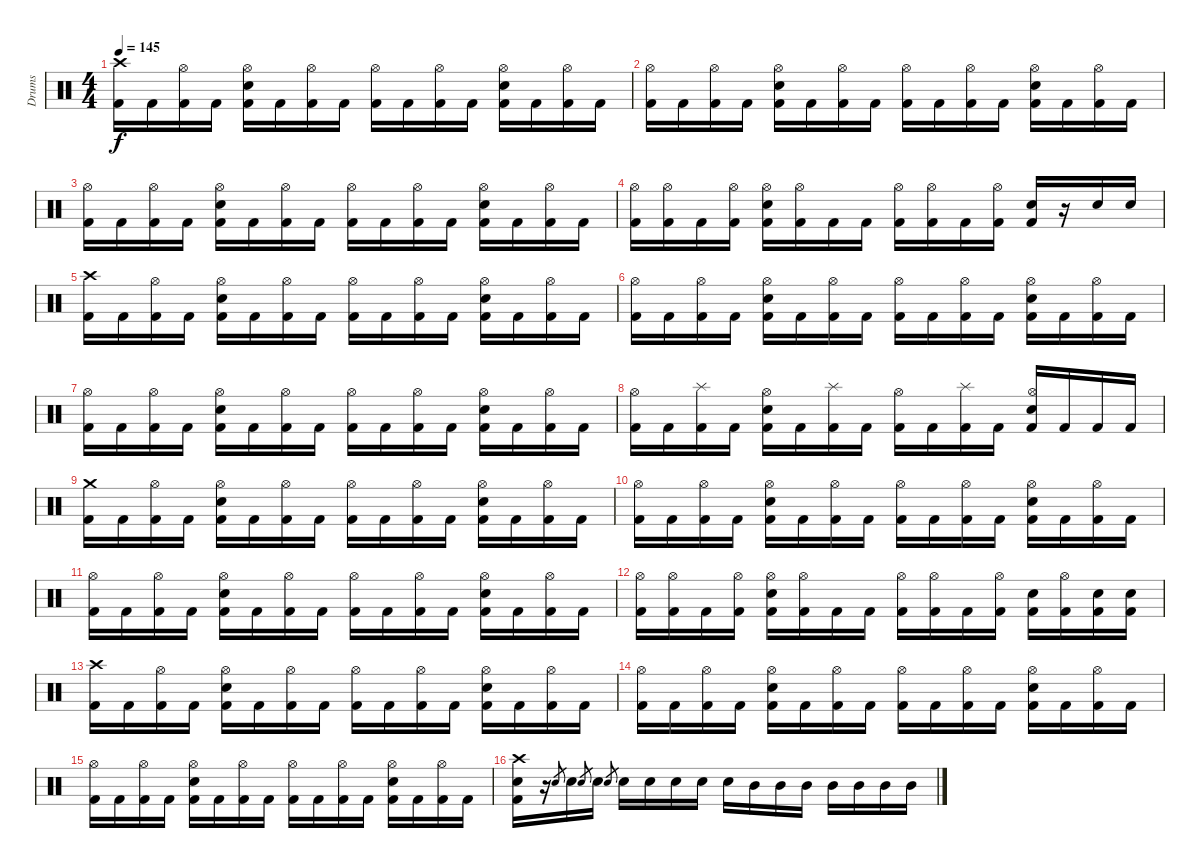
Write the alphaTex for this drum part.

\track ("Drums" "Drums") {instrument percussion}
\staff {score}
\articulation defaults
\ts (4 4)
\tempo 145
\clef neutral
\ks c
("Crash high (hit)" "Kick (hit) 2").16{dy f} "Kick (hit) 2".16 ("Hi-Hat (open)" "Kick (hit) 2").16 "Kick (hit) 2".16 ("Hi-Hat (open)" "Electric Snare (hit)" "Kick (hit) 2").16 "Kick (hit) 2".16 ("Hi-Hat (open)" "Kick (hit) 2").16 "Kick (hit) 2".16 ("Hi-Hat (open)" "Kick (hit) 2").16 "Kick (hit) 2".16 ("Hi-Hat (open)" "Kick (hit) 2").16 "Kick (hit) 2".16 ("Hi-Hat (open)" "Electric Snare (hit)" "Kick (hit) 2").16 "Kick (hit) 2".16 ("Hi-Hat (open)" "Kick (hit) 2").16 "Kick (hit) 2".16 |
("Hi-Hat (open)" "Kick (hit) 2").16 "Kick (hit) 2".16 ("Hi-Hat (open)" "Kick (hit) 2").16 "Kick (hit) 2".16 ("Hi-Hat (open)" "Electric Snare (hit)" "Kick (hit) 2").16 "Kick (hit) 2".16 ("Hi-Hat (open)" "Kick (hit) 2").16 "Kick (hit) 2".16 ("Hi-Hat (open)" "Kick (hit) 2").16 "Kick (hit) 2".16 ("Hi-Hat (open)" "Kick (hit) 2").16 "Kick (hit) 2".16 ("Hi-Hat (open)" "Electric Snare (hit)" "Kick (hit) 2").16 "Kick (hit) 2".16 ("Hi-Hat (open)" "Kick (hit) 2").16 "Kick (hit) 2".16 |
("Hi-Hat (open)" "Kick (hit) 2").16 "Kick (hit) 2".16 ("Hi-Hat (open)" "Kick (hit) 2").16 "Kick (hit) 2".16 ("Hi-Hat (open)" "Electric Snare (hit)" "Kick (hit) 2").16 "Kick (hit) 2".16 ("Hi-Hat (open)" "Kick (hit) 2").16 "Kick (hit) 2".16 ("Hi-Hat (open)" "Kick (hit) 2").16 "Kick (hit) 2".16 ("Hi-Hat (open)" "Kick (hit) 2").16 "Kick (hit) 2".16 ("Hi-Hat (open)" "Electric Snare (hit)" "Kick (hit) 2").16 "Kick (hit) 2".16 ("Hi-Hat (open)" "Kick (hit) 2").16 "Kick (hit) 2".16 |
("Hi-Hat (open)" "Kick (hit) 2").16 ("Hi-Hat (open)" "Kick (hit) 2").16 "Kick (hit) 2".16 ("Hi-Hat (open)" "Kick (hit) 2").16 ("Hi-Hat (open)" "Electric Snare (hit)" "Kick (hit) 2").16 ("Hi-Hat (open)" "Kick (hit) 2").16 "Kick (hit) 2".16 "Kick (hit) 2".16 ("Hi-Hat (open)" "Kick (hit) 2").16 ("Hi-Hat (open)" "Kick (hit) 2").16 "Kick (hit) 2".16 ("Hi-Hat (open)" "Kick (hit) 2").16 ("Electric Snare (hit)" "Kick (hit) 2").16 r.16 "Electric Snare (hit)".16 "Electric Snare (hit)".16 |
("Crash high (hit)" "Kick (hit) 2").16 "Kick (hit) 2".16 ("Hi-Hat (open)" "Kick (hit) 2").16 "Kick (hit) 2".16 ("Hi-Hat (open)" "Electric Snare (hit)" "Kick (hit) 2").16 "Kick (hit) 2".16 ("Hi-Hat (open)" "Kick (hit) 2").16 "Kick (hit) 2".16 ("Hi-Hat (open)" "Kick (hit) 2").16 "Kick (hit) 2".16 ("Hi-Hat (open)" "Kick (hit) 2").16 "Kick (hit) 2".16 ("Hi-Hat (open)" "Electric Snare (hit)" "Kick (hit) 2").16 "Kick (hit) 2".16 ("Hi-Hat (open)" "Kick (hit) 2").16 "Kick (hit) 2".16 |
("Hi-Hat (open)" "Kick (hit) 2").16 "Kick (hit) 2".16 ("Hi-Hat (open)" "Kick (hit) 2").16 "Kick (hit) 2".16 ("Hi-Hat (open)" "Electric Snare (hit)" "Kick (hit) 2").16 "Kick (hit) 2".16 ("Hi-Hat (open)" "Kick (hit) 2").16 "Kick (hit) 2".16 ("Hi-Hat (open)" "Kick (hit) 2").16 "Kick (hit) 2".16 ("Hi-Hat (open)" "Kick (hit) 2").16 "Kick (hit) 2".16 ("Hi-Hat (open)" "Electric Snare (hit)" "Kick (hit) 2").16 "Kick (hit) 2".16 ("Hi-Hat (open)" "Kick (hit) 2").16 "Kick (hit) 2".16 |
("Hi-Hat (open)" "Kick (hit) 2").16 "Kick (hit) 2".16 ("Hi-Hat (open)" "Kick (hit) 2").16 "Kick (hit) 2".16 ("Hi-Hat (open)" "Electric Snare (hit)" "Kick (hit) 2").16 "Kick (hit) 2".16 ("Hi-Hat (open)" "Kick (hit) 2").16 "Kick (hit) 2".16 ("Hi-Hat (open)" "Kick (hit) 2").16 "Kick (hit) 2".16 ("Hi-Hat (open)" "Kick (hit) 2").16 "Kick (hit) 2".16 ("Hi-Hat (open)" "Electric Snare (hit)" "Kick (hit) 2").16 "Kick (hit) 2".16 ("Hi-Hat (open)" "Kick (hit) 2").16 "Kick (hit) 2".16 |
("Hi-Hat (open)" "Kick (hit) 2").16 "Kick (hit) 2".16 ("Splash (hit)" "Kick (hit) 2").16 "Kick (hit) 2".16 ("Hi-Hat (open)" "Electric Snare (hit)" "Kick (hit) 2").16 "Kick (hit) 2".16 ("Splash (hit)" "Kick (hit) 2").16 "Kick (hit) 2".16 ("Hi-Hat (open)" "Kick (hit) 2").16 "Kick (hit) 2".16 ("Splash (hit)" "Kick (hit) 2").16 "Kick (hit) 2".16 ("Hi-Hat (open)" "Electric Snare (hit)" "Kick (hit) 2").16 "Kick (hit) 2".16 "Kick (hit) 2".16 "Kick (hit) 2".16 |
("Crash medium (hit)" "Kick (hit) 2").16 "Kick (hit) 2".16 ("Hi-Hat (open)" "Kick (hit) 2").16 "Kick (hit) 2".16 ("Hi-Hat (open)" "Electric Snare (hit)" "Kick (hit) 2").16 "Kick (hit) 2".16 ("Hi-Hat (open)" "Kick (hit) 2").16 "Kick (hit) 2".16 ("Hi-Hat (open)" "Kick (hit) 2").16 "Kick (hit) 2".16 ("Hi-Hat (open)" "Kick (hit) 2").16 "Kick (hit) 2".16 ("Hi-Hat (open)" "Electric Snare (hit)" "Kick (hit) 2").16 "Kick (hit) 2".16 ("Hi-Hat (open)" "Kick (hit) 2").16 "Kick (hit) 2".16 |
("Hi-Hat (open)" "Kick (hit) 2").16 "Kick (hit) 2".16 ("Hi-Hat (open)" "Kick (hit) 2").16 "Kick (hit) 2".16 ("Hi-Hat (open)" "Electric Snare (hit)" "Kick (hit) 2").16 "Kick (hit) 2".16 ("Hi-Hat (open)" "Kick (hit) 2").16 "Kick (hit) 2".16 ("Hi-Hat (open)" "Kick (hit) 2").16 "Kick (hit) 2".16 ("Hi-Hat (open)" "Kick (hit) 2").16 "Kick (hit) 2".16 ("Hi-Hat (open)" "Electric Snare (hit)" "Kick (hit) 2").16 "Kick (hit) 2".16 ("Hi-Hat (open)" "Kick (hit) 2").16 "Kick (hit) 2".16 |
("Hi-Hat (open)" "Kick (hit) 2").16 "Kick (hit) 2".16 ("Hi-Hat (open)" "Kick (hit) 2").16 "Kick (hit) 2".16 ("Hi-Hat (open)" "Electric Snare (hit)" "Kick (hit) 2").16 "Kick (hit) 2".16 ("Hi-Hat (open)" "Kick (hit) 2").16 "Kick (hit) 2".16 ("Hi-Hat (open)" "Kick (hit) 2").16 "Kick (hit) 2".16 ("Hi-Hat (open)" "Kick (hit) 2").16 "Kick (hit) 2".16 ("Hi-Hat (open)" "Electric Snare (hit)" "Kick (hit) 2").16 "Kick (hit) 2".16 ("Hi-Hat (open)" "Kick (hit) 2").16 "Kick (hit) 2".16 |
("Hi-Hat (open)" "Kick (hit) 2").16 ("Hi-Hat (open)" "Kick (hit) 2").16 "Kick (hit) 2".16 ("Hi-Hat (open)" "Kick (hit) 2").16 ("Hi-Hat (open)" "Electric Snare (hit)" "Kick (hit) 2").16 ("Hi-Hat (open)" "Kick (hit) 2").16 "Kick (hit) 2".16 "Kick (hit) 2".16 ("Hi-Hat (open)" "Kick (hit) 2").16 ("Hi-Hat (open)" "Kick (hit) 2").16 "Kick (hit) 2".16 ("Hi-Hat (open)" "Kick (hit) 2").16 ("Electric Snare (hit)" "Kick (hit) 2").16 ("Hi-Hat (open)" "Kick (hit) 2").16 ("Electric Snare (hit)" "Kick (hit) 2").16 ("Electric Snare (hit)" "Kick (hit) 2").16 |
("Crash high (hit)" "Kick (hit) 2").16 "Kick (hit) 2".16 ("Hi-Hat (open)" "Kick (hit) 2").16 "Kick (hit) 2".16 ("Hi-Hat (open)" "Electric Snare (hit)" "Kick (hit) 2").16 "Kick (hit) 2".16 ("Hi-Hat (open)" "Kick (hit) 2").16 "Kick (hit) 2".16 ("Hi-Hat (open)" "Kick (hit) 2").16 "Kick (hit) 2".16 ("Hi-Hat (open)" "Kick (hit) 2").16 "Kick (hit) 2".16 ("Hi-Hat (open)" "Electric Snare (hit)" "Kick (hit) 2").16 "Kick (hit) 2".16 ("Hi-Hat (open)" "Kick (hit) 2").16 "Kick (hit) 2".16 |
("Hi-Hat (open)" "Kick (hit) 2").16 "Kick (hit) 2".16 ("Hi-Hat (open)" "Kick (hit) 2").16 "Kick (hit) 2".16 ("Hi-Hat (open)" "Electric Snare (hit)" "Kick (hit) 2").16 "Kick (hit) 2".16 ("Hi-Hat (open)" "Kick (hit) 2").16 "Kick (hit) 2".16 ("Hi-Hat (open)" "Kick (hit) 2").16 "Kick (hit) 2".16 ("Hi-Hat (open)" "Kick (hit) 2").16 "Kick (hit) 2".16 ("Hi-Hat (open)" "Electric Snare (hit)" "Kick (hit) 2").16 "Kick (hit) 2".16 ("Hi-Hat (open)" "Kick (hit) 2").16 "Kick (hit) 2".16 |
("Hi-Hat (open)" "Kick (hit) 2").16 "Kick (hit) 2".16 ("Hi-Hat (open)" "Kick (hit) 2").16 "Kick (hit) 2".16 ("Hi-Hat (open)" "Electric Snare (hit)" "Kick (hit) 2").16 "Kick (hit) 2".16 ("Hi-Hat (open)" "Kick (hit) 2").16 "Kick (hit) 2".16 ("Hi-Hat (open)" "Kick (hit) 2").16 "Kick (hit) 2".16 ("Hi-Hat (open)" "Kick (hit) 2").16 "Kick (hit) 2".16 ("Hi-Hat (open)" "Electric Snare (hit)" "Kick (hit) 2").16 "Kick (hit) 2".16 ("Hi-Hat (open)" "Kick (hit) 2").16 "Kick (hit) 2".16 |
("Crash high (hit)" "Electric Snare (hit)" "Kick (hit) 2").16 r.16 "Electric Snare (hit)".8{gr} "Electric Snare (hit)".16 "Electric Snare (hit)".8{gr} "Electric Snare (hit)".16 "Electric Snare (hit)".8{gr} "Electric Snare (hit)".16 "Electric Snare (hit)".16 "Electric Snare (hit)".16 "Electric Snare (hit)".16 "Electric Snare (hit)".16 "Mid Tom (hit)".16 "Mid Tom (hit)".16 "Mid Tom (hit)".16 "Mid Tom (hit)".16 "Mid Tom (hit)".16 "Mid Tom (hit)".16 "Mid Tom (hit)".16
